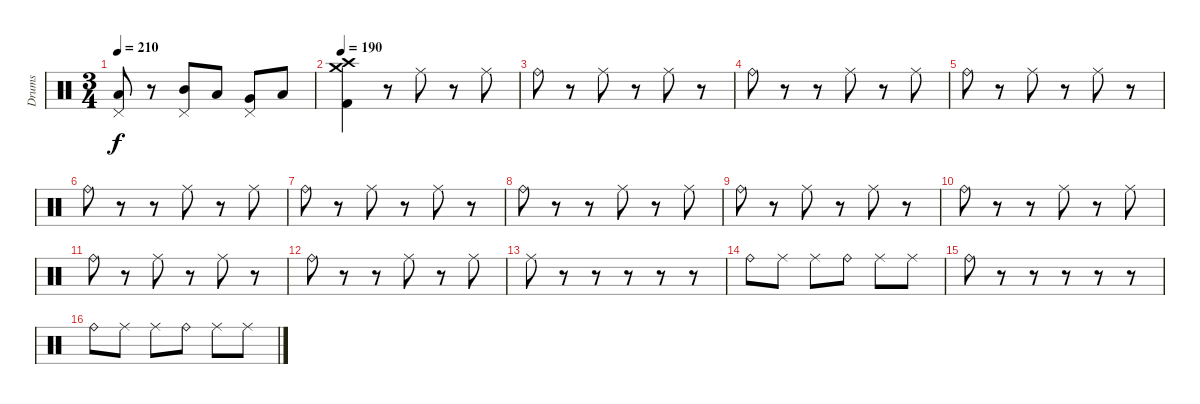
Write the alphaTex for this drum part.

\track ("Drums" "Drums") {instrument percussion}
\staff {score}
\articulation defaults
\ts (3 4)
\tempo 210
\clef neutral
\ks c
("Pedal Hi-Hat (hit)" "Low Floor Tom (hit)").8{dy f} r.8 ("Pedal Hi-Hat (hit)" "Mid Tom (hit)").8 "Low Tom (hit)".8 ("Pedal Hi-Hat (hit)" "Very Low Tom (hit)").8 "Low Floor Tom (hit)".8 |
\tempo 190
("Crash high (hit)" "Crash medium (hit)" "Kick (hit) 2").4 r.8 "Ride (middle)".8 r.8 "Ride (middle)".8 |
"Ride (bell)".8 r.8 "Ride (middle)".8 r.8 "Ride (middle)".8 r.8 |
"Ride (bell)".8 r.8 r.8 "Ride (middle)".8 r.8 "Ride (middle)".8 |
"Ride (bell)".8 r.8 "Ride (middle)".8 r.8 "Ride (middle)".8 r.8 |
"Ride (bell)".8 r.8 r.8 "Ride (middle)".8 r.8 "Ride (middle)".8 |
"Ride (bell)".8 r.8 "Ride (middle)".8 r.8 "Ride (middle)".8 r.8 |
"Ride (bell)".8 r.8 r.8 "Ride (middle)".8 r.8 "Ride (middle)".8 |
"Ride (bell)".8 r.8 "Ride (middle)".8 r.8 "Ride (middle)".8 r.8 |
"Ride (bell)".8 r.8 r.8 "Ride (middle)".8 r.8 "Ride (middle)".8 |
"Ride (bell)".8 r.8 "Ride (middle)".8 r.8 "Ride (middle)".8 r.8 |
"Ride (bell)".8 r.8 r.8 "Ride (middle)".8 r.8 "Ride (middle)".8 |
"Ride (middle)".8 r.8 r.8 r.8 r.8 r.8 |
"Ride (bell)".8 "Ride (middle)".8 "Ride (middle)".8 "Ride (bell)".8 "Ride (middle)".8 "Ride (middle)".8 |
"Ride (bell)".8 r.8 r.8 r.8 r.8 r.8 |
"Ride (bell)".8 "Ride (middle)".8 "Ride (middle)".8 "Ride (bell)".8 "Ride (middle)".8 "Ride (middle)".8
